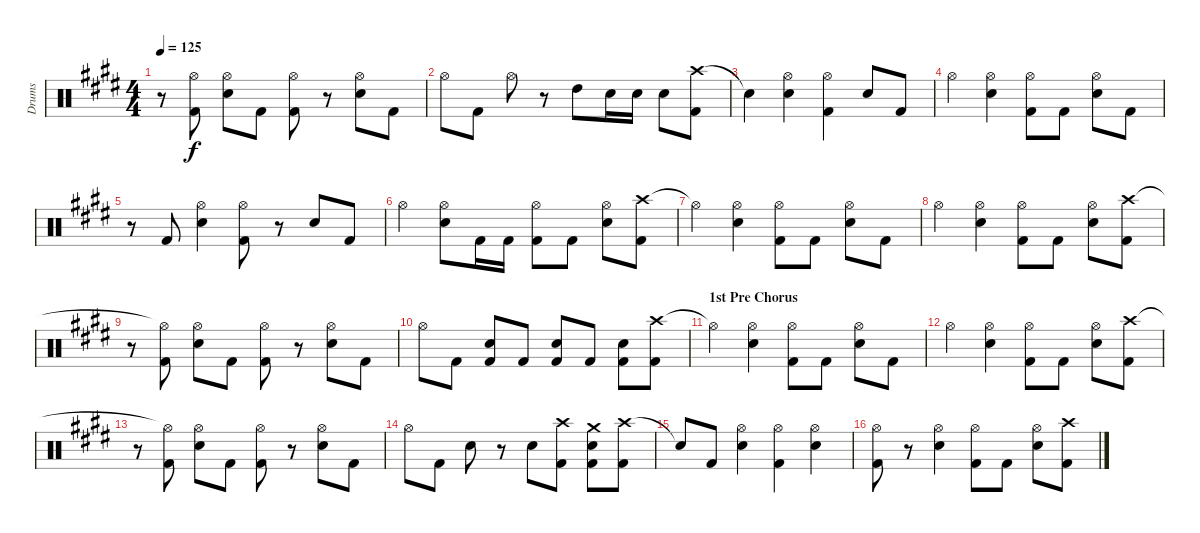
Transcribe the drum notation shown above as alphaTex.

\track ("Drums" "Drums") {instrument percussion}
\staff {score}
\articulation defaults
\ts (4 4)
\tempo 125
\clef neutral
\ks e
r.8{dy f} ("Hi-Hat (open)"{t} "Kick (hit) 2").8 ("Hi-Hat (open)" "Electric Snare (hit)").8 "Kick (hit) 2".8 ("Hi-Hat (open)" "Kick (hit) 2").8 r.8 ("Hi-Hat (open)" "Electric Snare (hit)").8 "Kick (hit) 2".8 |
"Hi-Hat (open)".8 "Kick (hit) 2".8 "Hi-Hat (open)".8 r.8 "High Tom (hit)".8 "Electric Snare (hit)".16 "Electric Snare (hit)".16 "Electric Snare (hit)".8 ("Crash high (hit)" "Kick (hit) 2").8 |
"Snare (hit)"{t}.4 ("Hi-Hat (open)" "Electric Snare (hit)").4 ("Hi-Hat (open)" "Kick (hit) 2").4 "Electric Snare (hit)".8 "Kick (hit) 2".8 |
"Hi-Hat (open)".4 ("Hi-Hat (open)" "Electric Snare (hit)").4 ("Hi-Hat (open)" "Kick (hit) 2").8 "Kick (hit) 2".8 ("Hi-Hat (open)" "Electric Snare (hit)").8 "Kick (hit) 2".8 |
r.8 "Kick (hit) 2".8 ("Hi-Hat (open)" "Electric Snare (hit)").4 ("Hi-Hat (open)" "Kick (hit) 2").8 r.8 "Electric Snare (hit)".8 "Kick (hit) 2".8 |
"Hi-Hat (open)".4 ("Hi-Hat (open)" "Electric Snare (hit)").8 "Kick (hit) 2".16 "Kick (hit) 2".16 ("Hi-Hat (open)" "Kick (hit) 2").8 "Kick (hit) 2".8 ("Hi-Hat (open)" "Electric Snare (hit)").8 ("Crash high (hit)" "Kick (hit) 2").8 |
"Hi-Hat (open)"{t}.4 ("Hi-Hat (open)" "Electric Snare (hit)").4 ("Hi-Hat (open)" "Kick (hit) 2").8 "Kick (hit) 2".8 ("Hi-Hat (open)" "Electric Snare (hit)").8 "Kick (hit) 2".8 |
"Hi-Hat (open)".4 ("Hi-Hat (open)" "Electric Snare (hit)").4 ("Hi-Hat (open)" "Kick (hit) 2").8 "Kick (hit) 2".8 ("Hi-Hat (open)" "Electric Snare (hit)").8 ("Crash high (hit)" "Kick (hit) 2").8 |
r.8 ("Hi-Hat (open)"{t} "Kick (hit) 2").8 ("Hi-Hat (open)" "Electric Snare (hit)").8 "Kick (hit) 2".8 ("Hi-Hat (open)" "Kick (hit) 2").8 r.8 ("Hi-Hat (open)" "Electric Snare (hit)").8 "Kick (hit) 2".8 |
"Hi-Hat (open)".8 "Kick (hit) 2".8 ("Electric Snare (hit)" "Kick (hit) 2").8 "Kick (hit) 2".8 ("Electric Snare (hit)" "Kick (hit) 2").8 "Kick (hit) 2".8 ("Electric Snare (hit)" "Kick (hit) 2").8 ("Crash high (hit)" "Kick (hit) 2").8 |
\section ("" "1st Pre Chorus")
"Hi-Hat (open)"{t}.4 ("Hi-Hat (open)" "Electric Snare (hit)").4 ("Hi-Hat (open)" "Kick (hit) 2").8 "Kick (hit) 2".8 ("Hi-Hat (open)" "Electric Snare (hit)").8 "Kick (hit) 2".8 |
"Hi-Hat (open)".4 ("Hi-Hat (open)" "Electric Snare (hit)").4 ("Hi-Hat (open)" "Kick (hit) 2").8 "Kick (hit) 2".8 ("Hi-Hat (open)" "Electric Snare (hit)").8 ("Crash high (hit)" "Kick (hit) 2").8 |
r.8 ("Hi-Hat (open)"{t} "Kick (hit) 2").8 ("Hi-Hat (open)" "Electric Snare (hit)").8 "Kick (hit) 2".8 ("Hi-Hat (open)" "Kick (hit) 2").8 r.8 ("Hi-Hat (open)" "Electric Snare (hit)").8 "Kick (hit) 2".8 |
"Hi-Hat (open)".8 "Kick (hit) 2".8 "Electric Snare (hit)".8 r.8 "Electric Snare (hit)".8 ("Crash high (hit)" "Kick (hit) 2").8 ("Crash medium (hit)" "Electric Snare (hit)" "Kick (hit) 2").8 ("Crash high (hit)" "Kick (hit) 2").8 |
"Snare (hit)"{t}.8 "Kick (hit) 2".8 ("Hi-Hat (open)" "Electric Snare (hit)").4 ("Hi-Hat (open)" "Kick (hit) 2").4 ("Hi-Hat (open)" "Electric Snare (hit)").4 |
("Hi-Hat (open)" "Kick (hit) 2").8 r.8 ("Hi-Hat (open)" "Electric Snare (hit)").4 ("Hi-Hat (open)" "Kick (hit) 2").8 "Kick (hit) 2".8 ("Hi-Hat (open)" "Electric Snare (hit)").8 ("Crash high (hit)" "Kick (hit) 2").8
